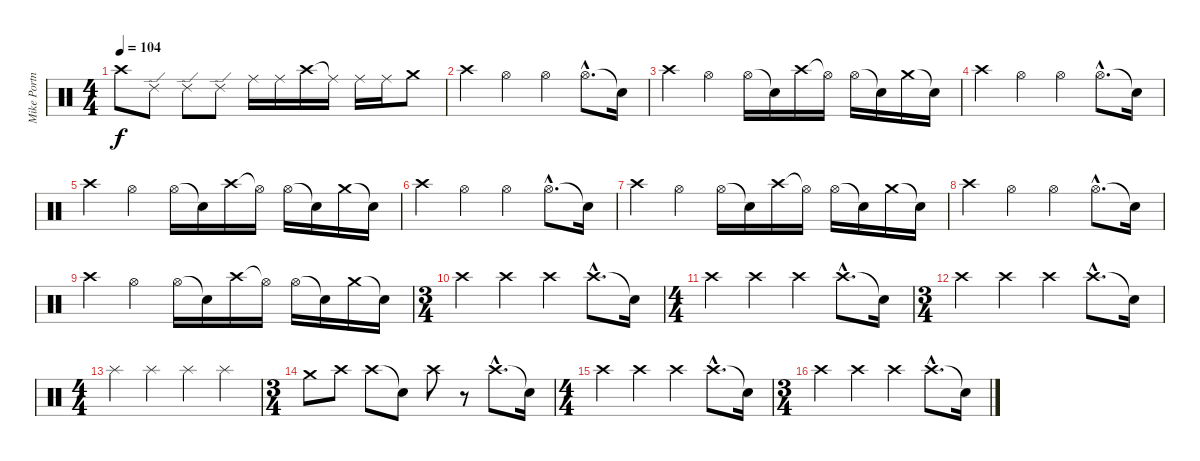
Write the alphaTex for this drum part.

\track ("Mike Portnoy" "Mike Portn") {instrument percussion}
\staff {score}
\articulation defaults
\ts (4 4)
\tempo 104
\clef neutral
\ks c "Crash high (hit)".8{dy f} "Ride (edge) 2".8 "Ride (edge) 2".8 "Ride (edge) 2".8 "Ride (middle)".16 "Ride (middle)".16 "Crash high (hit)".16 "Ride (middle)"{t}.16 "Ride (middle)".16 "Ride (middle)".16 "Crash medium (hit)".8
|
"Crash high (hit)".4 "Hi-Hat (open)".4 "Hi-Hat (open)".4 "Hi-Hat (open)"{hac}.8{d} "Snare (hit)"{t}.16 |
"Crash high (hit)".4 "Hi-Hat (open)".4 "Hi-Hat (open)".16 "Snare (hit)"{t}.16 "Crash high (hit)".16 "Hi-Hat (open)"{t}.16 "Hi-Hat (open)".16 "Snare (hit)"{t}.16 "Crash medium (hit)".16 "Snare (hit)"{t}.16 |
"Crash high (hit)".4 "Hi-Hat (open)".4 "Hi-Hat (open)".4 "Hi-Hat (open)"{hac}.8{d} "Snare (hit)"{t}.16 |
"Crash high (hit)".4 "Hi-Hat (open)".4 "Hi-Hat (open)".16 "Snare (hit)"{t}.16 "Crash high (hit)".16 "Hi-Hat (open)"{t}.16 "Hi-Hat (open)".16 "Snare (hit)"{t}.16 "Crash medium (hit)".16 "Snare (hit)"{t}.16 |
"Crash high (hit)".4 "Hi-Hat (open)".4 "Hi-Hat (open)".4 "Hi-Hat (open)"{hac}.8{d} "Snare (hit)"{t}.16 |
"Crash high (hit)".4 "Hi-Hat (open)".4 "Hi-Hat (open)".16 "Snare (hit)"{t}.16 "Crash high (hit)".16 "Hi-Hat (open)"{t}.16 "Hi-Hat (open)".16 "Snare (hit)"{t}.16 "Crash medium (hit)".16 "Snare (hit)"{t}.16 |
"Crash high (hit)".4 "Hi-Hat (open)".4 "Hi-Hat (open)".4 "Hi-Hat (open)"{hac}.8{d} "Snare (hit)"{t}.16 |
"Crash high (hit)".4 "Hi-Hat (open)".4 "Hi-Hat (open)".16 "Snare (hit)"{t}.16 "Crash high (hit)".16 "Hi-Hat (open)"{t}.16 "Hi-Hat (open)".16 "Snare (hit)"{t}.16 "Crash medium (hit)".16 "Snare (hit)"{t}.16 |
\ts (3 4)
"Crash high (hit)".4 "Crash high (hit)".4 "Crash high (hit)".4 "Crash high (hit)"{hac}.8{d} "Snare (hit)"{t}.16 |
\ts (4 4)
"Crash high (hit)".4 "Crash high (hit)".4 "Crash high (hit)".4 "Crash high (hit)"{hac}.8{d} "Snare (hit)"{t}.16 |
\ts (3 4)
"Crash high (hit)".4 "Crash high (hit)".4 "Crash high (hit)".4 "Crash high (hit)"{hac}.8{d} "Snare (hit)"{t}.16 |
\ts (4 4)
"Splash (hit)".4 "Splash (hit)".4 "Splash (hit)".4 "Splash (hit)".4 |
\ts (3 4)
"Crash medium (hit)".8 "Crash high (hit)".8 "Crash high (hit)".8 "Snare (hit)"{t}.8 "Crash high (hit)".8 r.8 "Crash high (hit)"{hac}.8{d} "Snare (hit)"{t}.16 |
\ts (4 4)
"Crash high (hit)".4 "Crash high (hit)".4 "Crash high (hit)".4 "Crash high (hit)"{hac}.8{d} "Snare (hit)"{t}.16 |
\ts (3 4)
"Crash high (hit)".4 "Crash high (hit)".4 "Crash high (hit)".4 "Crash high (hit)"{hac}.8{d} "Snare (hit)"{t}.16
